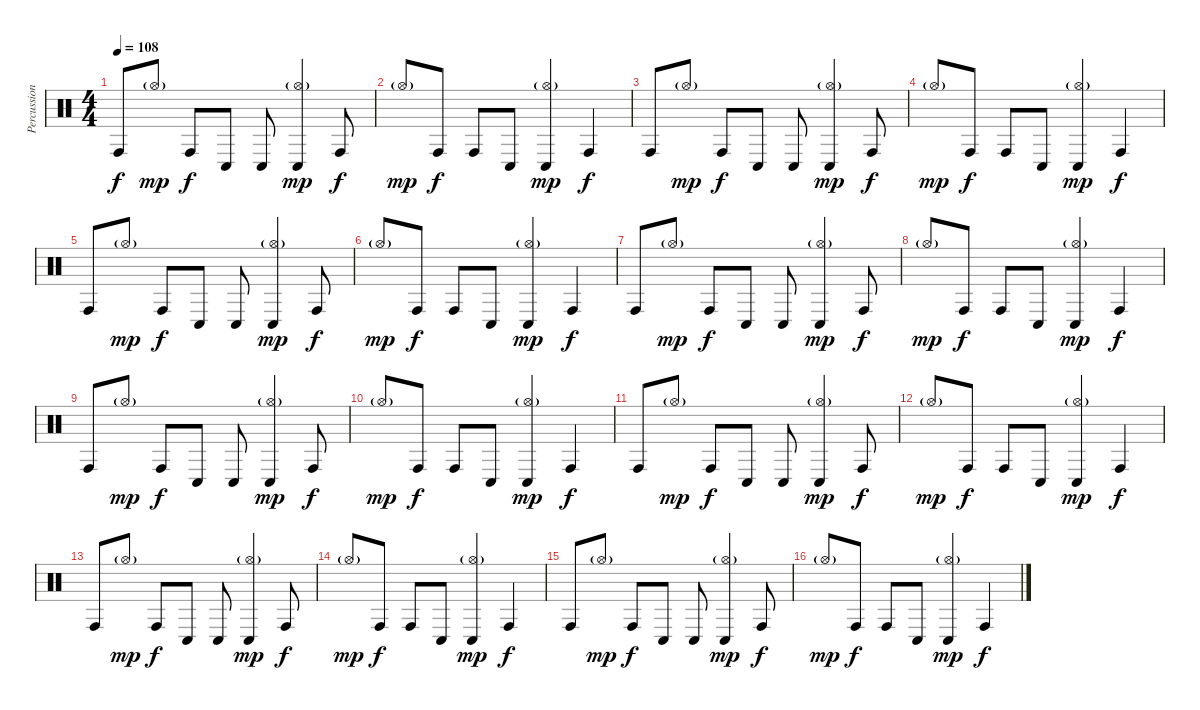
\track ("Percussion" "Percussion") {instrument percussion}
\staff {score}
\articulation defaults
\ts (4 4)
\tempo 108
\clef neutral
\ks c "Conga high (hit)".8{dy f} "Hi-Hat (open)"{g}.8{dy mp} "Conga high (hit)".8{dy f} "Conga low (hit)".8 "Conga low (hit)".8
("Hi-Hat (open)"{g} "Conga low (hit)").4{dy mp} "Conga high (hit)".8{dy f} |
"Hi-Hat (open)"{g}.8{dy mp} "Conga high (hit)".8{dy f} "Conga high (hit)".8 "Conga low (hit)".8 ("Hi-Hat (open)"{g} "Conga low (hit)").4{dy mp} "Conga high (hit)".4{dy f} |
"Conga high (hit)".8 "Hi-Hat (open)"{g}.8{dy mp} "Conga high (hit)".8{dy f} "Conga low (hit)".8 "Conga low (hit)".8 ("Hi-Hat (open)"{g} "Conga low (hit)").4{dy mp} "Conga high (hit)".8{dy f} |
"Hi-Hat (open)"{g}.8{dy mp} "Conga high (hit)".8{dy f} "Conga high (hit)".8 "Conga low (hit)".8 ("Hi-Hat (open)"{g} "Conga low (hit)").4{dy mp} "Conga high (hit)".4{dy f} |
"Conga high (hit)".8 "Hi-Hat (open)"{g}.8{dy mp} "Conga high (hit)".8{dy f} "Conga low (hit)".8 "Conga low (hit)".8 ("Hi-Hat (open)"{g} "Conga low (hit)").4{dy mp} "Conga high (hit)".8{dy f} |
"Hi-Hat (open)"{g}.8{dy mp} "Conga high (hit)".8{dy f} "Conga high (hit)".8 "Conga low (hit)".8 ("Hi-Hat (open)"{g} "Conga low (hit)").4{dy mp} "Conga high (hit)".4{dy f} |
"Conga high (hit)".8 "Hi-Hat (open)"{g}.8{dy mp} "Conga high (hit)".8{dy f} "Conga low (hit)".8 "Conga low (hit)".8 ("Hi-Hat (open)"{g} "Conga low (hit)").4{dy mp} "Conga high (hit)".8{dy f} |
"Hi-Hat (open)"{g}.8{dy mp} "Conga high (hit)".8{dy f} "Conga high (hit)".8 "Conga low (hit)".8 ("Hi-Hat (open)"{g} "Conga low (hit)").4{dy mp} "Conga high (hit)".4{dy f} |
"Conga high (hit)".8 "Hi-Hat (open)"{g}.8{dy mp} "Conga high (hit)".8{dy f} "Conga low (hit)".8 "Conga low (hit)".8 ("Hi-Hat (open)"{g} "Conga low (hit)").4{dy mp} "Conga high (hit)".8{dy f} |
"Hi-Hat (open)"{g}.8{dy mp} "Conga high (hit)".8{dy f} "Conga high (hit)".8 "Conga low (hit)".8 ("Hi-Hat (open)"{g} "Conga low (hit)").4{dy mp} "Conga high (hit)".4{dy f} |
"Conga high (hit)".8 "Hi-Hat (open)"{g}.8{dy mp} "Conga high (hit)".8{dy f} "Conga low (hit)".8 "Conga low (hit)".8 ("Hi-Hat (open)"{g} "Conga low (hit)").4{dy mp} "Conga high (hit)".8{dy f} |
"Hi-Hat (open)"{g}.8{dy mp} "Conga high (hit)".8{dy f} "Conga high (hit)".8 "Conga low (hit)".8 ("Hi-Hat (open)"{g} "Conga low (hit)").4{dy mp} "Conga high (hit)".4{dy f} |
"Conga high (hit)".8 "Hi-Hat (open)"{g}.8{dy mp} "Conga high (hit)".8{dy f} "Conga low (hit)".8 "Conga low (hit)".8 ("Hi-Hat (open)"{g} "Conga low (hit)").4{dy mp} "Conga high (hit)".8{dy f} |
"Hi-Hat (open)"{g}.8{dy mp} "Conga high (hit)".8{dy f} "Conga high (hit)".8 "Conga low (hit)".8 ("Hi-Hat (open)"{g} "Conga low (hit)").4{dy mp} "Conga high (hit)".4{dy f} |
"Conga high (hit)".8 "Hi-Hat (open)"{g}.8{dy mp} "Conga high (hit)".8{dy f} "Conga low (hit)".8 "Conga low (hit)".8 ("Hi-Hat (open)"{g} "Conga low (hit)").4{dy mp} "Conga high (hit)".8{dy f} |
"Hi-Hat (open)"{g}.8{dy mp} "Conga high (hit)".8{dy f} "Conga high (hit)".8 "Conga low (hit)".8 ("Hi-Hat (open)"{g} "Conga low (hit)").4{dy mp} "Conga high (hit)".4{dy f}
